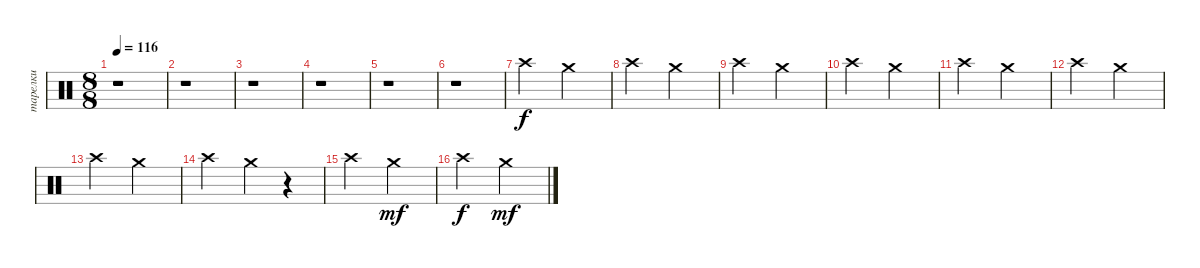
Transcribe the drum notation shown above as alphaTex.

\track ("тарелки" "тарелки") {instrument percussion}
\staff {score}
\articulation defaults
\ts (8 8)
\tempo 116
\clef neutral
\ks c
r.1{dy f} |
r.1 |
r.1 |
r.1 |
r.1 |
r.1 |
"Crash high (hit)".2 "Crash medium (hit)".2 |
"Crash high (hit)".2 "Crash medium (hit)".2 |
"Crash high (hit)".2 "Crash medium (hit)".2 |
"Crash high (hit)".2 "Crash medium (hit)".2 |
"Crash high (hit)".2 "Crash medium (hit)".2 |
"Crash high (hit)".2 "Crash medium (hit)".2 |
"Crash high (hit)".2 "Crash medium (hit)".2 |
"Crash high (hit)".2 "Crash medium (hit)".4 r.4 |
"Crash high (hit)".2 "Crash medium (hit)".2{dy mf} |
"Crash high (hit)".2{dy f} "Crash medium (hit)".2{dy mf}
